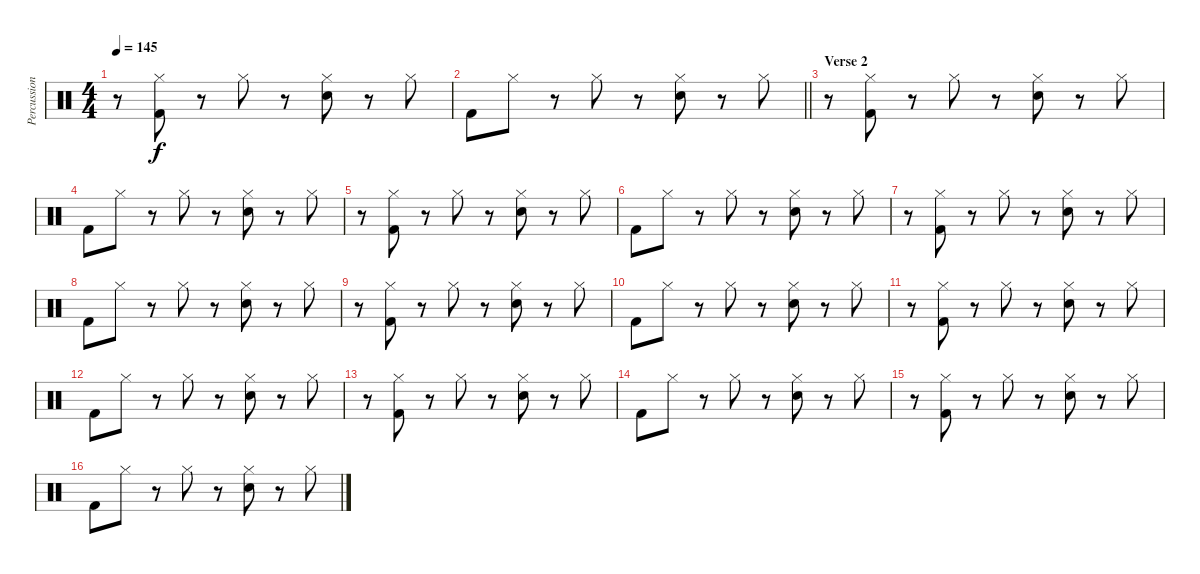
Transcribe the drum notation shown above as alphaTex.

\track ("Percussion" "Percussion") {instrument percussion}
\staff {score}
\articulation defaults
\ts (4 4)
\tempo 145
\clef neutral
\ks c
r.8{dy f} ("Hi-Hat (closed)" "Kick (hit) 2").8 r.8 "Hi-Hat (closed)".8 r.8 ("Hi-Hat (closed)" "Electric Snare (hit)").8 r.8 "Hi-Hat (closed)".8 |
\barLineRight lightlight "Kick (hit) 2".8 "Hi-Hat (closed)".8
r.8 "Hi-Hat (closed)".8 r.8 ("Hi-Hat (closed)" "Electric Snare (hit)").8 r.8 "Hi-Hat (closed)".8 |
\section ("" "Verse 2")
r.8 ("Hi-Hat (closed)" "Kick (hit) 2").8 r.8 "Hi-Hat (closed)".8 r.8 ("Hi-Hat (closed)" "Electric Snare (hit)").8 r.8 "Hi-Hat (closed)".8 |
"Kick (hit) 2".8 "Hi-Hat (closed)".8 r.8 "Hi-Hat (closed)".8 r.8 ("Hi-Hat (closed)" "Electric Snare (hit)").8 r.8 "Hi-Hat (closed)".8 |
r.8 ("Hi-Hat (closed)" "Kick (hit) 2").8 r.8 "Hi-Hat (closed)".8 r.8 ("Hi-Hat (closed)" "Electric Snare (hit)").8 r.8 "Hi-Hat (closed)".8 |
"Kick (hit) 2".8 "Hi-Hat (closed)".8 r.8 "Hi-Hat (closed)".8 r.8 ("Hi-Hat (closed)" "Electric Snare (hit)").8 r.8 "Hi-Hat (closed)".8 |
r.8 ("Hi-Hat (closed)" "Kick (hit) 2").8 r.8 "Hi-Hat (closed)".8 r.8 ("Hi-Hat (closed)" "Electric Snare (hit)").8 r.8 "Hi-Hat (closed)".8 |
"Kick (hit) 2".8 "Hi-Hat (closed)".8 r.8 "Hi-Hat (closed)".8 r.8 ("Hi-Hat (closed)" "Electric Snare (hit)").8 r.8 "Hi-Hat (closed)".8 |
r.8 ("Hi-Hat (closed)" "Kick (hit) 2").8 r.8 "Hi-Hat (closed)".8 r.8 ("Hi-Hat (closed)" "Electric Snare (hit)").8 r.8 "Hi-Hat (closed)".8 |
"Kick (hit) 2".8 "Hi-Hat (closed)".8 r.8 "Hi-Hat (closed)".8 r.8 ("Hi-Hat (closed)" "Electric Snare (hit)").8 r.8 "Hi-Hat (closed)".8 |
r.8 ("Hi-Hat (closed)" "Kick (hit) 2").8 r.8 "Hi-Hat (closed)".8 r.8 ("Hi-Hat (closed)" "Electric Snare (hit)").8 r.8 "Hi-Hat (closed)".8 |
"Kick (hit) 2".8 "Hi-Hat (closed)".8 r.8 "Hi-Hat (closed)".8 r.8 ("Hi-Hat (closed)" "Electric Snare (hit)").8 r.8 "Hi-Hat (closed)".8 |
r.8 ("Hi-Hat (closed)" "Kick (hit) 2").8 r.8 "Hi-Hat (closed)".8 r.8 ("Hi-Hat (closed)" "Electric Snare (hit)").8 r.8 "Hi-Hat (closed)".8 |
"Kick (hit) 2".8 "Hi-Hat (closed)".8 r.8 "Hi-Hat (closed)".8 r.8 ("Hi-Hat (closed)" "Electric Snare (hit)").8 r.8 "Hi-Hat (closed)".8 |
r.8 ("Hi-Hat (closed)" "Kick (hit) 2").8 r.8 "Hi-Hat (closed)".8 r.8 ("Hi-Hat (closed)" "Electric Snare (hit)").8 r.8 "Hi-Hat (closed)".8 |
"Kick (hit) 2".8 "Hi-Hat (closed)".8 r.8 "Hi-Hat (closed)".8 r.8 ("Hi-Hat (closed)" "Electric Snare (hit)").8 r.8 "Hi-Hat (closed)".8
